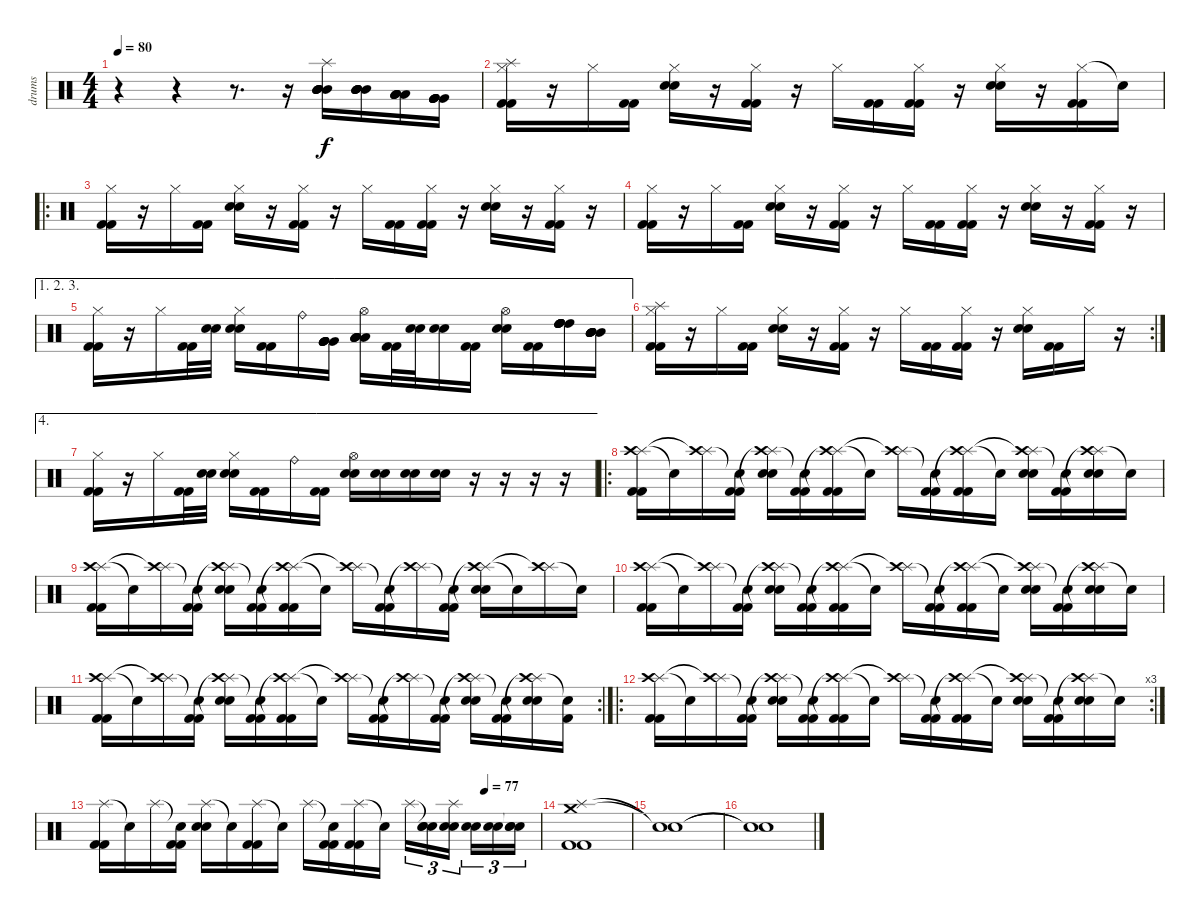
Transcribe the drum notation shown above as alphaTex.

\track ("drums" "drums") {instrument percussion}
\staff {score}
\articulation defaults
\ts (4 4)
\tempo 80
\clef neutral
\ks c
r.4{dy f} r.4 r.8{d} r.16 ("Splash (hit)" "Mid Tom (hit)" "Mid Tom (hit)" "Mid Tom (hit)" "Mid Tom (hit)" "Mid Tom (hit)").16 ("Mid Tom (hit)" "Mid Tom (hit)" "Mid Tom (hit)" "Mid Tom (hit)" "Mid Tom (hit)").16 ("Low Tom (hit)" "Low Tom (hit)" "Low Tom (hit)" "Low Tom (hit)" "Low Tom (hit)").16 ("Very Low Tom (hit)" "Very Low Tom (hit)" "Very Low Tom (hit)" "Very Low Tom (hit)" "Very Low Tom (hit)").16 |
("Hi-Hat (closed)" "Splash (hit)" "Kick (hit) 2" "Kick (hit) 2").16 r.16 "Hi-Hat (closed)".16 ("Kick (hit) 2" "Kick (hit) 2").16 ("Hi-Hat (closed)" "Electric Snare (hit)" "Electric Snare (hit)").16 r.16 ("Hi-Hat (closed)" "Kick (hit) 2" "Kick (hit) 2").16 r.16 "Hi-Hat (closed)".16 ("Kick (hit) 2" "Kick (hit) 2").16 ("Hi-Hat (closed)" "Kick (hit) 2" "Kick (hit) 2").16 r.16 ("Hi-Hat (closed)" "Electric Snare (hit)" "Electric Snare (hit)").16 r.16 ("Hi-Hat (closed)" "Kick (hit) 2" "Kick (hit) 2").16 "Snare (hit)"{t}.16 |
\ro
("Hi-Hat (closed)" "Kick (hit) 2" "Kick (hit) 2").16 r.16 "Hi-Hat (closed)".16 ("Kick (hit) 2" "Kick (hit) 2").16 ("Hi-Hat (closed)" "Electric Snare (hit)" "Electric Snare (hit)").16 r.16 ("Hi-Hat (closed)" "Kick (hit) 2" "Kick (hit) 2").16 r.16 "Hi-Hat (closed)".16 ("Kick (hit) 2" "Kick (hit) 2").16 ("Hi-Hat (closed)" "Kick (hit) 2" "Kick (hit) 2").16 r.16 ("Hi-Hat (closed)" "Electric Snare (hit)" "Electric Snare (hit)").16 r.16 ("Hi-Hat (closed)" "Kick (hit) 2" "Kick (hit) 2").16 r.16 |
("Hi-Hat (closed)" "Kick (hit) 2" "Kick (hit) 2").16 r.16 "Hi-Hat (closed)".16 ("Kick (hit) 2" "Kick (hit) 2").16 ("Hi-Hat (closed)" "Electric Snare (hit)" "Electric Snare (hit)").16 r.16 ("Hi-Hat (closed)" "Kick (hit) 2" "Kick (hit) 2").16 r.16 "Hi-Hat (closed)".16 ("Kick (hit) 2" "Kick (hit) 2").16 ("Hi-Hat (closed)" "Kick (hit) 2" "Kick (hit) 2").16 r.16 ("Hi-Hat (closed)" "Electric Snare (hit)" "Electric Snare (hit)").16 r.16 ("Hi-Hat (closed)" "Kick (hit) 2" "Kick (hit) 2").16 r.16 |
\ae (1 2 3)
("Hi-Hat (closed)" "Kick (hit) 2" "Kick (hit) 2").16 r.16 "Hi-Hat (closed)".16 ("Kick (hit) 2" "Kick (hit) 2").32 ("Electric Snare (hit)" "Electric Snare (hit)").32 ("Hi-Hat (closed)" "Electric Snare (hit)" "Electric Snare (hit)").16 ("Kick (hit) 2" "Kick (hit) 2").16 "Ride (bell)".16 ("Very Low Tom (hit)" "Very Low Tom (hit)" "Very Low Tom (hit)" "Very Low Tom (hit)" "Very Low Tom (hit)").16 ("Hi-Hat (open)" "Low Floor Tom (hit)" "Low Floor Tom (hit)" "Low Floor Tom (hit)" "Low Floor Tom (hit)" "Low Floor Tom (hit)").16 ("Kick (hit) 2" "Kick (hit) 2").32 ("Electric Snare (hit)" "Electric Snare (hit)").32 ("Electric Snare (hit)" "Electric Snare (hit)").16 ("Kick (hit) 2" "Kick (hit) 2").16 ("Hi-Hat (open)" "Electric Snare (hit)" "Electric Snare (hit)").16 ("Kick (hit) 2" "Kick (hit) 2").16 ("High Tom (hit)" "High Tom (hit)" "High Tom (hit)" "High Tom (hit)" "High Tom (hit)" "High Tom (hit)").16 ("Mid Tom (hit)" "Mid Tom (hit)" "Mid Tom (hit)" "Mid Tom (hit)" "Mid Tom (hit)" "Mid Tom (hit)").16 |
\rc 2
("Hi-Hat (closed)" "Splash (hit)" "Kick (hit) 2" "Kick (hit) 2").16 r.16 "Hi-Hat (closed)".16 ("Kick (hit) 2" "Kick (hit) 2").16 ("Hi-Hat (closed)" "Electric Snare (hit)" "Electric Snare (hit)").16 r.16 ("Hi-Hat (closed)" "Kick (hit) 2" "Kick (hit) 2").16 r.16 "Hi-Hat (closed)".16 ("Kick (hit) 2" "Kick (hit) 2").16 ("Hi-Hat (closed)" "Kick (hit) 2" "Kick (hit) 2").16 r.16 ("Hi-Hat (closed)" "Electric Snare (hit)" "Electric Snare (hit)").16 ("Kick (hit) 2" "Kick (hit) 2").16 "Hi-Hat (closed)".16 r.16 |
\ae 4
("Hi-Hat (closed)" "Kick (hit) 2" "Kick (hit) 2").16 r.16 "Hi-Hat (closed)".16 ("Kick (hit) 2" "Kick (hit) 2").32 ("Electric Snare (hit)" "Electric Snare (hit)").32 ("Hi-Hat (closed)" "Electric Snare (hit)" "Electric Snare (hit)").16 ("Kick (hit) 2" "Kick (hit) 2").16 "Ride (bell)".16 ("Kick (hit) 2" "Kick (hit) 2").16 ("Hi-Hat (open)" "Electric Snare (hit)" "Electric Snare (hit)").16 ("Electric Snare (hit)" "Electric Snare (hit)").16 ("Electric Snare (hit)" "Electric Snare (hit)").16 ("Electric Snare (hit)" "Electric Snare (hit)").16 r.16 r.16 r.16 r.16 |
\ro
("Splash (hit)" "Crash high (hit)" "Kick (hit) 2" "Kick (hit) 2").16 "Snare (hit)"{t}.16 ("Splash (hit)" "Crash high (hit)"{t}).16 ("Snare (hit)"{t} "Kick (hit) 2" "Kick (hit) 2").16 ("Splash (hit)" "Crash high (hit)"{t} "Electric Snare (hit)" "Electric Snare (hit)").16 ("Snare (hit)"{t} "Kick (hit) 2" "Kick (hit) 2").16 ("Splash (hit)" "Crash high (hit)"{t} "Kick (hit) 2" "Kick (hit) 2").16 "Snare (hit)"{t}.16 ("Splash (hit)" "Crash high (hit)"{t}).16 ("Snare (hit)"{t} "Kick (hit) 2" "Kick (hit) 2").16 ("Splash (hit)" "Crash high (hit)"{t} "Kick (hit) 2" "Kick (hit) 2").16 "Snare (hit)"{t}.16 ("Splash (hit)" "Crash high (hit)"{t} "Electric Snare (hit)" "Electric Snare (hit)").16 ("Snare (hit)"{t} "Kick (hit) 2" "Kick (hit) 2").16 ("Splash (hit)" "Crash high (hit)"{t} "Electric Snare (hit)" "Electric Snare (hit)").16 "Snare (hit)"{t}.16 |
("Splash (hit)" "Crash high (hit)" "Kick (hit) 2" "Kick (hit) 2").16 "Snare (hit)"{t}.16 ("Splash (hit)" "Crash high (hit)"{t}).16 ("Snare (hit)"{t} "Kick (hit) 2" "Kick (hit) 2").16 ("Splash (hit)" "Crash high (hit)"{t} "Electric Snare (hit)" "Electric Snare (hit)").16 ("Snare (hit)"{t} "Kick (hit) 2" "Kick (hit) 2").16 ("Splash (hit)" "Crash high (hit)"{t} "Kick (hit) 2" "Kick (hit) 2").16 "Snare (hit)"{t}.16 ("Splash (hit)" "Crash high (hit)"{t}).16 ("Snare (hit)"{t} "Kick (hit) 2" "Kick (hit) 2").16 ("Splash (hit)" "Crash high (hit)"{t}).16 ("Snare (hit)"{t} "Kick (hit) 2" "Kick (hit) 2").16 ("Splash (hit)" "Crash high (hit)"{t} "Electric Snare (hit)" "Electric Snare (hit)").16 "Snare (hit)"{t}.16 ("Splash (hit)" "Crash high (hit)"{t}).16 "Snare (hit)"{t}.16 |
("Splash (hit)" "Crash high (hit)" "Kick (hit) 2" "Kick (hit) 2").16 "Snare (hit)"{t}.16 ("Splash (hit)" "Crash high (hit)"{t}).16 ("Snare (hit)"{t} "Kick (hit) 2" "Kick (hit) 2").16 ("Splash (hit)" "Crash high (hit)"{t} "Electric Snare (hit)" "Electric Snare (hit)").16 ("Snare (hit)"{t} "Kick (hit) 2" "Kick (hit) 2").16 ("Splash (hit)" "Crash high (hit)"{t} "Kick (hit) 2" "Kick (hit) 2").16 "Snare (hit)"{t}.16 ("Splash (hit)" "Crash high (hit)"{t}).16 ("Snare (hit)"{t} "Kick (hit) 2" "Kick (hit) 2").16 ("Splash (hit)" "Crash high (hit)"{t} "Kick (hit) 2" "Kick (hit) 2").16 "Snare (hit)"{t}.16 ("Splash (hit)" "Crash high (hit)"{t} "Electric Snare (hit)" "Electric Snare (hit)").16 ("Snare (hit)"{t} "Kick (hit) 2" "Kick (hit) 2").16 ("Splash (hit)" "Crash high (hit)"{t} "Electric Snare (hit)" "Electric Snare (hit)").16 "Snare (hit)"{t}.16 |
\rc 2
("Splash (hit)" "Crash high (hit)" "Kick (hit) 2" "Kick (hit) 2").16 "Snare (hit)"{t}.16 ("Splash (hit)" "Crash high (hit)"{t}).16 ("Snare (hit)"{t} "Kick (hit) 2" "Kick (hit) 2").16 ("Splash (hit)" "Crash high (hit)"{t} "Electric Snare (hit)" "Electric Snare (hit)").16 ("Snare (hit)"{t} "Kick (hit) 2" "Kick (hit) 2").16 ("Splash (hit)" "Crash high (hit)"{t} "Kick (hit) 2" "Kick (hit) 2").16 "Snare (hit)"{t}.16 ("Splash (hit)" "Crash high (hit)"{t}).16 ("Snare (hit)"{t} "Kick (hit) 2" "Kick (hit) 2").16 ("Splash (hit)" "Crash high (hit)"{t}).16 ("Snare (hit)"{t} "Kick (hit) 2" "Kick (hit) 2").16 ("Splash (hit)" "Crash high (hit)"{t} "Electric Snare (hit)" "Electric Snare (hit)").16 ("Snare (hit)"{t} "Kick (hit) 2" "Kick (hit) 2").16 ("Splash (hit)" "Crash high (hit)"{t} "Electric Snare (hit)" "Electric Snare (hit)").16 ("Snare (hit)"{t} "Kick (hit) 2").16 |
\ro
\rc 3
("Splash (hit)" "Crash high (hit)" "Kick (hit) 2" "Kick (hit) 2").16 "Snare (hit)"{t}.16 ("Splash (hit)" "Crash high (hit)"{t}).16 ("Snare (hit)"{t} "Kick (hit) 2" "Kick (hit) 2").16 ("Splash (hit)" "Crash high (hit)"{t} "Electric Snare (hit)" "Electric Snare (hit)").16 ("Snare (hit)"{t} "Kick (hit) 2" "Kick (hit) 2").16 ("Splash (hit)" "Crash high (hit)"{t} "Kick (hit) 2" "Kick (hit) 2").16 "Snare (hit)"{t}.16 ("Splash (hit)" "Crash high (hit)"{t}).16 ("Snare (hit)"{t} "Kick (hit) 2" "Kick (hit) 2").16 ("Splash (hit)" "Crash high (hit)"{t} "Kick (hit) 2" "Kick (hit) 2").16 "Snare (hit)"{t}.16 ("Splash (hit)" "Crash high (hit)"{t} "Electric Snare (hit)" "Electric Snare (hit)").16 ("Snare (hit)"{t} "Kick (hit) 2" "Kick (hit) 2").16 ("Splash (hit)" "Crash high (hit)"{t} "Electric Snare (hit)" "Electric Snare (hit)").16 "Snare (hit)"{t}.16 |
\tempo (77 0.875)
("Splash (hit)" "Kick (hit) 2" "Kick (hit) 2").16 "Snare (hit)"{t}.16 "Splash (hit)".16 ("Snare (hit)"{t} "Kick (hit) 2" "Kick (hit) 2").16 ("Splash (hit)" "Electric Snare (hit)" "Electric Snare (hit)").16 "Snare (hit)"{t}.16 ("Splash (hit)" "Kick (hit) 2" "Kick (hit) 2").16 "Snare (hit)"{t}.16 "Splash (hit)".16 ("Snare (hit)"{t} "Kick (hit) 2" "Kick (hit) 2").16 ("Splash (hit)" "Kick (hit) 2" "Kick (hit) 2").16 "Snare (hit)"{t}.16 "Splash (hit)".16{tu (3 2)} ("Snare (hit)"{t} "Electric Snare (hit)" "Electric Snare (hit)").16{tu (3 2)} ("Splash (hit)" "Electric Snare (hit)" "Electric Snare (hit)").16{tu (3 2)} ("Electric Snare (hit)" "Electric Snare (hit)").16{tu (3 2)} ("Electric Snare (hit)" "Electric Snare (hit)").16{tu (3 2)} ("Snare (hit)"{t} "Electric Snare (hit)" "Electric Snare (hit)").16{tu (3 2)} |
("Splash (hit)" "Crash medium (hit)" "Kick (hit) 2" "Kick (hit) 2").1 |
("Snare (hit)"{t} "Snare (hit)"{t}).1 |
("Snare (hit)"{t} "Snare (hit)"{t}).1
